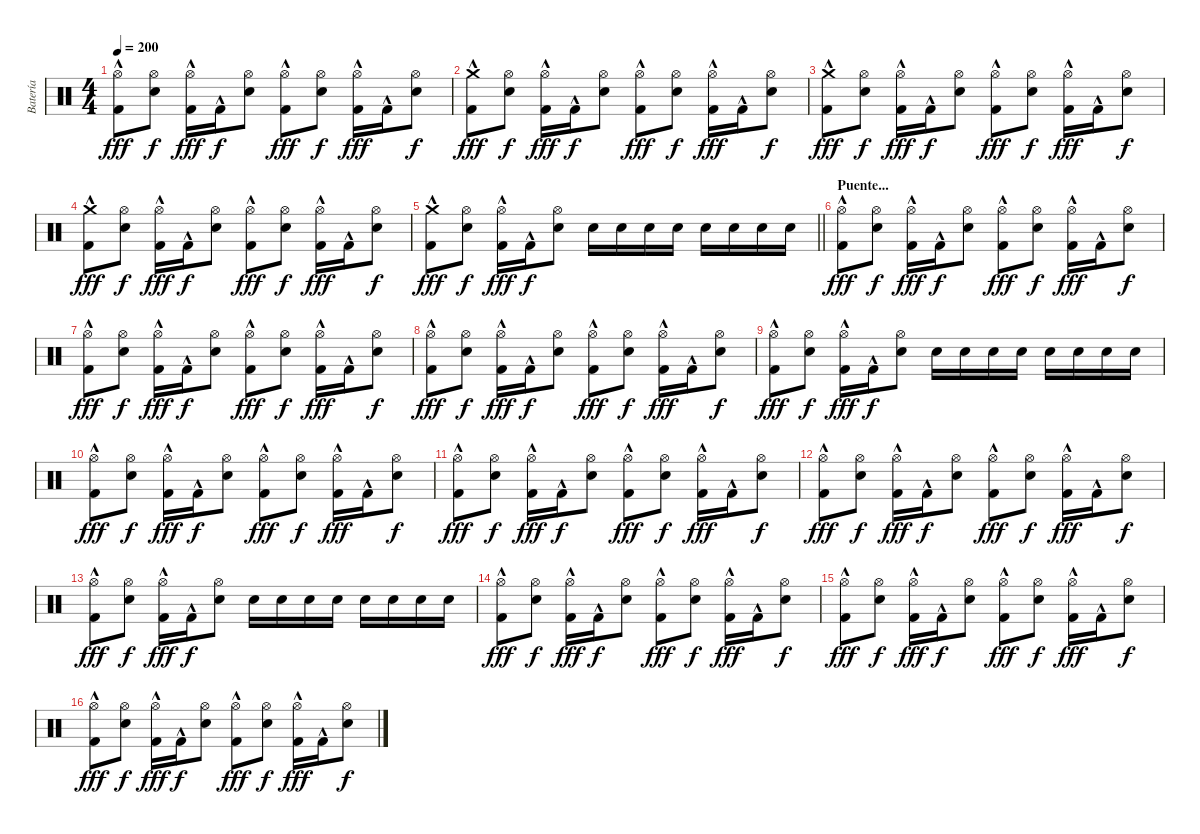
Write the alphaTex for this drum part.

\track ("Batería" "Batería") {instrument percussion}
\staff {score}
\articulation defaults
\ts (4 4)
\tempo 200
\clef neutral
\ks c
("Hi-Hat (open)" "Kick (hit) 2"{hac}).8{dy fff} ("Snare (hit) 2" "Hi-Hat (open)").8{dy f} ("Hi-Hat (open)" "Kick (hit) 2"{hac}).16{dy fff} "Kick (hit) 2"{hac}.16{dy f} ("Snare (hit) 2" "Hi-Hat (open)").8 ("Hi-Hat (open)" "Kick (hit) 2"{hac}).8{dy fff} ("Snare (hit) 2" "Hi-Hat (open)").8{dy f} ("Hi-Hat (open)" "Kick (hit) 2"{hac}).16{dy fff} "Kick (hit) 2"{hac}.16 ("Snare (hit) 2" "Hi-Hat (open)").8{dy f} |
("Crash medium (hit)"{hac} "Kick (hit) 2"{hac}).8{dy fff} ("Snare (hit) 2" "Hi-Hat (open)").8{dy f} ("Hi-Hat (open)" "Kick (hit) 2"{hac}).16{dy fff} "Kick (hit) 2"{hac}.16{dy f} ("Snare (hit) 2" "Hi-Hat (open)").8 ("Hi-Hat (open)" "Kick (hit) 2"{hac}).8{dy fff} ("Snare (hit) 2" "Hi-Hat (open)").8{dy f} ("Hi-Hat (open)" "Kick (hit) 2"{hac}).16{dy fff} "Kick (hit) 2"{hac}.16 ("Snare (hit) 2" "Hi-Hat (open)").8{dy f} |
("Crash medium (hit)"{hac} "Kick (hit) 2"{hac}).8{dy fff} ("Snare (hit) 2" "Hi-Hat (open)").8{dy f} ("Hi-Hat (open)" "Kick (hit) 2"{hac}).16{dy fff} "Kick (hit) 2"{hac}.16{dy f} ("Snare (hit) 2" "Hi-Hat (open)").8 ("Hi-Hat (open)" "Kick (hit) 2"{hac}).8{dy fff} ("Snare (hit) 2" "Hi-Hat (open)").8{dy f} ("Hi-Hat (open)" "Kick (hit) 2"{hac}).16{dy fff} "Kick (hit) 2"{hac}.16 ("Snare (hit) 2" "Hi-Hat (open)").8{dy f} |
("Crash medium (hit)"{hac} "Kick (hit) 2"{hac}).8{dy fff} ("Snare (hit) 2" "Hi-Hat (open)").8{dy f} ("Hi-Hat (open)" "Kick (hit) 2"{hac}).16{dy fff} "Kick (hit) 2"{hac}.16{dy f} ("Snare (hit) 2" "Hi-Hat (open)").8 ("Hi-Hat (open)" "Kick (hit) 2"{hac}).8{dy fff} ("Snare (hit) 2" "Hi-Hat (open)").8{dy f} ("Hi-Hat (open)" "Kick (hit) 2"{hac}).16{dy fff} "Kick (hit) 2"{hac}.16 ("Snare (hit) 2" "Hi-Hat (open)").8{dy f} |
\barLineRight lightlight
("Crash medium (hit)"{hac} "Kick (hit) 2"{hac}).8{dy fff} ("Snare (hit) 2" "Hi-Hat (open)").8{dy f} ("Hi-Hat (open)" "Kick (hit) 2"{hac}).16{dy fff} "Kick (hit) 2"{hac}.16{dy f} ("Snare (hit) 2" "Hi-Hat (open)").8 "Snare (hit) 2".16 "Snare (hit) 2".16 "Snare (hit) 2".16 "Snare (hit) 2".16 "Snare (hit) 2".16 "Snare (hit) 2".16 "Snare (hit) 2".16 "Snare (hit) 2".16 |
\section ("" "Puente...")
("Hi-Hat (open)" "Kick (hit) 2"{hac}).8{dy fff} ("Snare (hit) 2" "Hi-Hat (open)").8{dy f} ("Hi-Hat (open)" "Kick (hit) 2"{hac}).16{dy fff} "Kick (hit) 2"{hac}.16{dy f} ("Snare (hit) 2" "Hi-Hat (open)").8 ("Hi-Hat (open)" "Kick (hit) 2"{hac}).8{dy fff} ("Snare (hit) 2" "Hi-Hat (open)").8{dy f} ("Hi-Hat (open)" "Kick (hit) 2"{hac}).16{dy fff} "Kick (hit) 2"{hac}.16 ("Snare (hit) 2" "Hi-Hat (open)").8{dy f} |
("Hi-Hat (open)" "Kick (hit) 2"{hac}).8{dy fff} ("Snare (hit) 2" "Hi-Hat (open)").8{dy f} ("Hi-Hat (open)" "Kick (hit) 2"{hac}).16{dy fff} "Kick (hit) 2"{hac}.16{dy f} ("Snare (hit) 2" "Hi-Hat (open)").8 ("Hi-Hat (open)" "Kick (hit) 2"{hac}).8{dy fff} ("Snare (hit) 2" "Hi-Hat (open)").8{dy f} ("Hi-Hat (open)" "Kick (hit) 2"{hac}).16{dy fff} "Kick (hit) 2"{hac}.16 ("Snare (hit) 2" "Hi-Hat (open)").8{dy f} |
("Hi-Hat (open)" "Kick (hit) 2"{hac}).8{dy fff} ("Snare (hit) 2" "Hi-Hat (open)").8{dy f} ("Hi-Hat (open)" "Kick (hit) 2"{hac}).16{dy fff} "Kick (hit) 2"{hac}.16{dy f} ("Snare (hit) 2" "Hi-Hat (open)").8 ("Hi-Hat (open)" "Kick (hit) 2"{hac}).8{dy fff} ("Snare (hit) 2" "Hi-Hat (open)").8{dy f} ("Hi-Hat (open)" "Kick (hit) 2"{hac}).16{dy fff} "Kick (hit) 2"{hac}.16 ("Snare (hit) 2" "Hi-Hat (open)").8{dy f} |
("Hi-Hat (open)" "Kick (hit) 2"{hac}).8{dy fff} ("Snare (hit) 2" "Hi-Hat (open)").8{dy f} ("Hi-Hat (open)" "Kick (hit) 2"{hac}).16{dy fff} "Kick (hit) 2"{hac}.16{dy f} ("Snare (hit) 2" "Hi-Hat (open)").8 "Snare (hit) 2".16 "Snare (hit) 2".16 "Snare (hit) 2".16 "Snare (hit) 2".16 "Snare (hit) 2".16 "Snare (hit) 2".16 "Snare (hit) 2".16 "Snare (hit) 2".16 |
("Hi-Hat (open)" "Kick (hit) 2"{hac}).8{dy fff} ("Snare (hit) 2" "Hi-Hat (open)").8{dy f} ("Hi-Hat (open)" "Kick (hit) 2"{hac}).16{dy fff} "Kick (hit) 2"{hac}.16{dy f} ("Snare (hit) 2" "Hi-Hat (open)").8 ("Hi-Hat (open)" "Kick (hit) 2"{hac}).8{dy fff} ("Snare (hit) 2" "Hi-Hat (open)").8{dy f} ("Hi-Hat (open)" "Kick (hit) 2"{hac}).16{dy fff} "Kick (hit) 2"{hac}.16 ("Snare (hit) 2" "Hi-Hat (open)").8{dy f} |
("Hi-Hat (open)" "Kick (hit) 2"{hac}).8{dy fff} ("Snare (hit) 2" "Hi-Hat (open)").8{dy f} ("Hi-Hat (open)" "Kick (hit) 2"{hac}).16{dy fff} "Kick (hit) 2"{hac}.16{dy f} ("Snare (hit) 2" "Hi-Hat (open)").8 ("Hi-Hat (open)" "Kick (hit) 2"{hac}).8{dy fff} ("Snare (hit) 2" "Hi-Hat (open)").8{dy f} ("Hi-Hat (open)" "Kick (hit) 2"{hac}).16{dy fff} "Kick (hit) 2"{hac}.16 ("Snare (hit) 2" "Hi-Hat (open)").8{dy f} |
("Hi-Hat (open)" "Kick (hit) 2"{hac}).8{dy fff} ("Snare (hit) 2" "Hi-Hat (open)").8{dy f} ("Hi-Hat (open)" "Kick (hit) 2"{hac}).16{dy fff} "Kick (hit) 2"{hac}.16{dy f} ("Snare (hit) 2" "Hi-Hat (open)").8 ("Hi-Hat (open)" "Kick (hit) 2"{hac}).8{dy fff} ("Snare (hit) 2" "Hi-Hat (open)").8{dy f} ("Hi-Hat (open)" "Kick (hit) 2"{hac}).16{dy fff} "Kick (hit) 2"{hac}.16 ("Snare (hit) 2" "Hi-Hat (open)").8{dy f} |
("Hi-Hat (open)" "Kick (hit) 2"{hac}).8{dy fff} ("Snare (hit) 2" "Hi-Hat (open)").8{dy f} ("Hi-Hat (open)" "Kick (hit) 2"{hac}).16{dy fff} "Kick (hit) 2"{hac}.16{dy f} ("Snare (hit) 2" "Hi-Hat (open)").8 "Snare (hit) 2".16 "Snare (hit) 2".16 "Snare (hit) 2".16 "Snare (hit) 2".16 "Snare (hit) 2".16 "Snare (hit) 2".16 "Snare (hit) 2".16 "Snare (hit) 2".16 |
("Hi-Hat (open)" "Kick (hit) 2"{hac}).8{dy fff} ("Snare (hit) 2" "Hi-Hat (open)").8{dy f} ("Hi-Hat (open)" "Kick (hit) 2"{hac}).16{dy fff} "Kick (hit) 2"{hac}.16{dy f} ("Snare (hit) 2" "Hi-Hat (open)").8 ("Hi-Hat (open)" "Kick (hit) 2"{hac}).8{dy fff} ("Snare (hit) 2" "Hi-Hat (open)").8{dy f} ("Hi-Hat (open)" "Kick (hit) 2"{hac}).16{dy fff} "Kick (hit) 2"{hac}.16 ("Snare (hit) 2" "Hi-Hat (open)").8{dy f} |
("Hi-Hat (open)" "Kick (hit) 2"{hac}).8{dy fff} ("Snare (hit) 2" "Hi-Hat (open)").8{dy f} ("Hi-Hat (open)" "Kick (hit) 2"{hac}).16{dy fff} "Kick (hit) 2"{hac}.16{dy f} ("Snare (hit) 2" "Hi-Hat (open)").8 ("Hi-Hat (open)" "Kick (hit) 2"{hac}).8{dy fff} ("Snare (hit) 2" "Hi-Hat (open)").8{dy f} ("Hi-Hat (open)" "Kick (hit) 2"{hac}).16{dy fff} "Kick (hit) 2"{hac}.16 ("Snare (hit) 2" "Hi-Hat (open)").8{dy f} |
("Hi-Hat (open)" "Kick (hit) 2"{hac}).8{dy fff} ("Snare (hit) 2" "Hi-Hat (open)").8{dy f} ("Hi-Hat (open)" "Kick (hit) 2"{hac}).16{dy fff} "Kick (hit) 2"{hac}.16{dy f} ("Snare (hit) 2" "Hi-Hat (open)").8 ("Hi-Hat (open)" "Kick (hit) 2"{hac}).8{dy fff} ("Snare (hit) 2" "Hi-Hat (open)").8{dy f} ("Hi-Hat (open)" "Kick (hit) 2"{hac}).16{dy fff} "Kick (hit) 2"{hac}.16 ("Snare (hit) 2" "Hi-Hat (open)").8{dy f}
